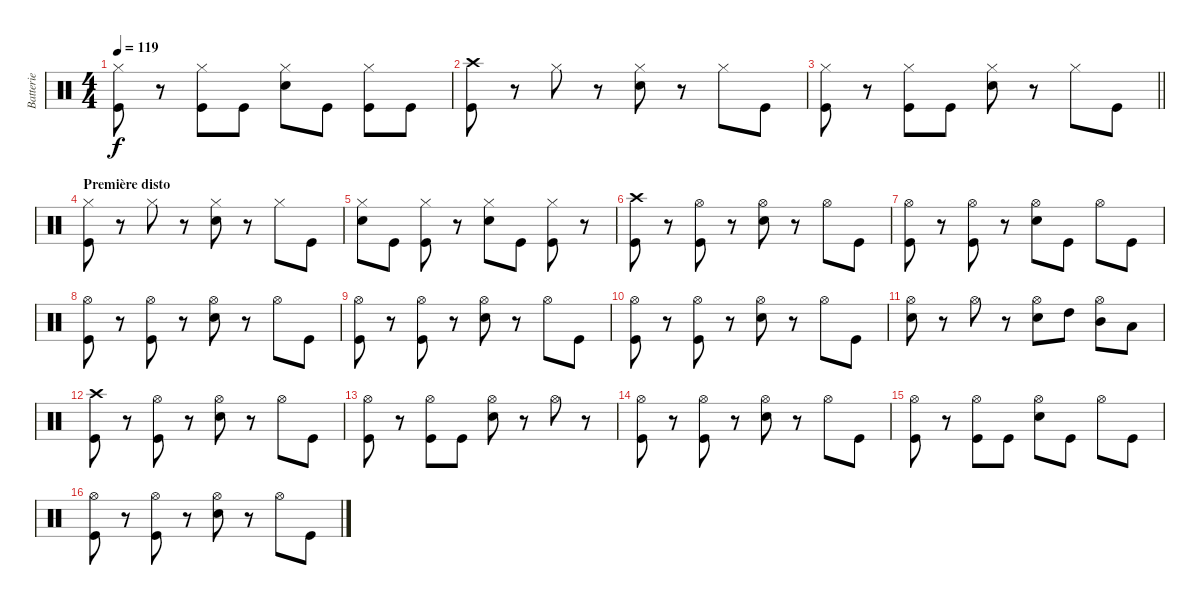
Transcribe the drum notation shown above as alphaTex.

\track ("Batterie" "Batterie") {instrument percussion}
\staff {score}
\articulation defaults
\ts (4 4)
\tempo 119
\clef neutral
\ks c
("Hi-Hat (closed)" "Kick (hit)").8{dy f} r.8 ("Hi-Hat (closed)" "Kick (hit)").8 "Kick (hit)".8 ("Hi-Hat (closed)" "Electric Snare (hit)").8 "Kick (hit)".8 ("Hi-Hat (closed)" "Kick (hit)").8 "Kick (hit)".8 |
("Crash high (hit)" "Kick (hit)").8 r.8 "Hi-Hat (closed)".8 r.8 ("Hi-Hat (closed)" "Electric Snare (hit)").8 r.8 "Hi-Hat (closed)".8 "Kick (hit)".8 |
\barLineRight lightlight
("Hi-Hat (closed)" "Kick (hit)").8 r.8 ("Hi-Hat (closed)" "Kick (hit)").8 "Kick (hit)".8 ("Hi-Hat (closed)" "Electric Snare (hit)").8 r.8 "Hi-Hat (closed)".8 "Kick (hit)".8 |
\section ("" "Première disto")
("Hi-Hat (closed)" "Kick (hit)").8 r.8 "Hi-Hat (closed)".8 r.8 ("Hi-Hat (closed)" "Electric Snare (hit)").8 r.8 "Hi-Hat (closed)".8 "Kick (hit)".8 |
("Hi-Hat (closed)" "Electric Snare (hit)").8 "Kick (hit)".8 ("Hi-Hat (closed)" "Kick (hit)").8 r.8 ("Hi-Hat (closed)" "Electric Snare (hit)").8 "Kick (hit)".8 ("Hi-Hat (closed)" "Kick (hit)").8 r.8 |
("Crash high (hit)" "Kick (hit)").8 r.8 ("Hi-Hat (open)" "Kick (hit)").8 r.8 ("Hi-Hat (open)" "Electric Snare (hit)").8 r.8 "Hi-Hat (open)".8 "Kick (hit)".8 |
("Hi-Hat (open)" "Kick (hit)").8 r.8 ("Hi-Hat (open)" "Kick (hit)").8 r.8 ("Hi-Hat (open)" "Electric Snare (hit)").8 "Kick (hit)".8 "Hi-Hat (open)".8 "Kick (hit)".8 |
("Hi-Hat (open)" "Kick (hit)").8 r.8 ("Hi-Hat (open)" "Kick (hit)").8 r.8 ("Hi-Hat (open)" "Electric Snare (hit)").8 r.8 "Hi-Hat (open)".8 "Kick (hit)".8 |
("Hi-Hat (open)" "Kick (hit)").8 r.8 ("Hi-Hat (open)" "Kick (hit)").8 r.8 ("Hi-Hat (open)" "Electric Snare (hit)").8 r.8 "Hi-Hat (open)".8 "Kick (hit)".8 |
("Hi-Hat (open)" "Kick (hit)").8 r.8 ("Hi-Hat (open)" "Kick (hit)").8 r.8 ("Hi-Hat (open)" "Electric Snare (hit)").8 r.8 "Hi-Hat (open)".8 "Kick (hit)".8 |
("Hi-Hat (open)" "Electric Snare (hit)").8 r.8 "Hi-Hat (open)".8 r.8 ("Hi-Hat (open)" "Electric Snare (hit)").8 "High Tom (hit)".8 ("Hi-Hat (open)" "Mid Tom (hit)").8 "Low Floor Tom (hit)".8 |
("Crash high (hit)" "Kick (hit)").8 r.8 ("Hi-Hat (open)" "Kick (hit)").8 r.8 ("Hi-Hat (open)" "Electric Snare (hit)").8 r.8 "Hi-Hat (open)".8 "Kick (hit)".8 |
("Hi-Hat (open)" "Kick (hit)").8 r.8 ("Hi-Hat (open)" "Kick (hit)").8 "Kick (hit)".8 ("Hi-Hat (open)" "Electric Snare (hit)").8 r.8 "Hi-Hat (open)".8 r.8 |
("Hi-Hat (open)" "Kick (hit)").8 r.8 ("Hi-Hat (open)" "Kick (hit)").8 r.8 ("Hi-Hat (open)" "Electric Snare (hit)").8 r.8 "Hi-Hat (open)".8 "Kick (hit)".8 |
("Hi-Hat (open)" "Kick (hit)").8 r.8 ("Hi-Hat (open)" "Kick (hit)").8 "Kick (hit)".8 ("Hi-Hat (open)" "Electric Snare (hit)").8 "Kick (hit)".8 "Hi-Hat (open)".8 "Kick (hit)".8 |
("Hi-Hat (open)" "Kick (hit)").8 r.8 ("Hi-Hat (open)" "Kick (hit)").8 r.8 ("Hi-Hat (open)" "Electric Snare (hit)").8 r.8 "Hi-Hat (open)".8 "Kick (hit)".8
